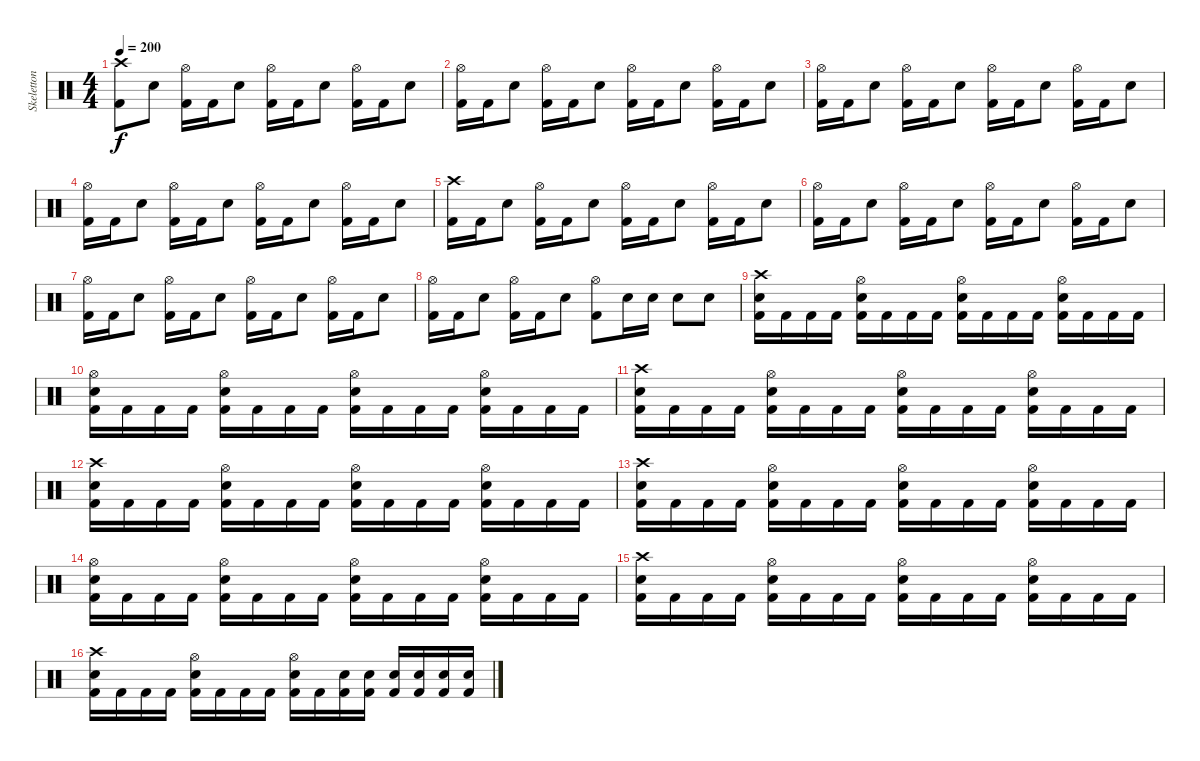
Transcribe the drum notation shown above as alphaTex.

\track ("Skeletton - Drums" "Skeletton ") {instrument percussion}
\staff {score}
\articulation defaults
\ts (4 4)
\tempo 200
\clef neutral
\ks c
("Crash high (hit)" "Kick (hit) 2").8{dy f} "Electric Snare (hit)".8 ("Hi-Hat (open)" "Kick (hit) 2").16 "Kick (hit) 2".16 "Electric Snare (hit)".8 ("Hi-Hat (open)" "Kick (hit) 2").16 "Kick (hit) 2".16 "Electric Snare (hit)".8 ("Hi-Hat (open)" "Kick (hit) 2").16 "Kick (hit) 2".16 "Electric Snare (hit)".8 |
("Hi-Hat (open)" "Kick (hit) 2").16 "Kick (hit) 2".16 "Electric Snare (hit)".8 ("Hi-Hat (open)" "Kick (hit) 2").16 "Kick (hit) 2".16 "Electric Snare (hit)".8 ("Hi-Hat (open)" "Kick (hit) 2").16 "Kick (hit) 2".16 "Electric Snare (hit)".8 ("Hi-Hat (open)" "Kick (hit) 2").16 "Kick (hit) 2".16 "Electric Snare (hit)".8 |
("Hi-Hat (open)" "Kick (hit) 2").16 "Kick (hit) 2".16 "Electric Snare (hit)".8 ("Hi-Hat (open)" "Kick (hit) 2").16 "Kick (hit) 2".16 "Electric Snare (hit)".8 ("Hi-Hat (open)" "Kick (hit) 2").16 "Kick (hit) 2".16 "Electric Snare (hit)".8 ("Hi-Hat (open)" "Kick (hit) 2").16 "Kick (hit) 2".16 "Electric Snare (hit)".8 |
("Hi-Hat (open)" "Kick (hit) 2").16 "Kick (hit) 2".16 "Electric Snare (hit)".8 ("Hi-Hat (open)" "Kick (hit) 2").16 "Kick (hit) 2".16 "Electric Snare (hit)".8 ("Hi-Hat (open)" "Kick (hit) 2").16 "Kick (hit) 2".16 "Electric Snare (hit)".8 ("Hi-Hat (open)" "Kick (hit) 2").16 "Kick (hit) 2".16 "Electric Snare (hit)".8 |
("Crash high (hit)" "Kick (hit) 2").16 "Kick (hit) 2".16 "Electric Snare (hit)".8 ("Hi-Hat (open)" "Kick (hit) 2").16 "Kick (hit) 2".16 "Electric Snare (hit)".8 ("Hi-Hat (open)" "Kick (hit) 2").16 "Kick (hit) 2".16 "Electric Snare (hit)".8 ("Hi-Hat (open)" "Kick (hit) 2").16 "Kick (hit) 2".16 "Electric Snare (hit)".8 |
("Hi-Hat (open)" "Kick (hit) 2").16 "Kick (hit) 2".16 "Electric Snare (hit)".8 ("Hi-Hat (open)" "Kick (hit) 2").16 "Kick (hit) 2".16 "Electric Snare (hit)".8 ("Hi-Hat (open)" "Kick (hit) 2").16 "Kick (hit) 2".16 "Electric Snare (hit)".8 ("Hi-Hat (open)" "Kick (hit) 2").16 "Kick (hit) 2".16 "Electric Snare (hit)".8 |
("Hi-Hat (open)" "Kick (hit) 2").16 "Kick (hit) 2".16 "Electric Snare (hit)".8 ("Hi-Hat (open)" "Kick (hit) 2").16 "Kick (hit) 2".16 "Electric Snare (hit)".8 ("Hi-Hat (open)" "Kick (hit) 2").16 "Kick (hit) 2".16 "Electric Snare (hit)".8 ("Hi-Hat (open)" "Kick (hit) 2").16 "Kick (hit) 2".16 "Electric Snare (hit)".8 |
("Hi-Hat (open)" "Kick (hit) 2").16 "Kick (hit) 2".16 "Electric Snare (hit)".8 ("Hi-Hat (open)" "Kick (hit) 2").16 "Kick (hit) 2".16 "Electric Snare (hit)".8 ("Hi-Hat (open)" "Kick (hit) 2").8 "Electric Snare (hit)".16 "Electric Snare (hit)".16 "Electric Snare (hit)".8 "Electric Snare (hit)".8 |
("Crash high (hit)" "Electric Snare (hit)" "Kick (hit) 2").16 "Kick (hit) 2".16 "Kick (hit) 2".16 "Kick (hit) 2".16 ("Hi-Hat (open)" "Electric Snare (hit)" "Kick (hit) 2").16 "Kick (hit) 2".16 "Kick (hit) 2".16 "Kick (hit) 2".16 ("Hi-Hat (open)" "Electric Snare (hit)" "Kick (hit) 2").16 "Kick (hit) 2".16 "Kick (hit) 2".16 "Kick (hit) 2".16 ("Hi-Hat (open)" "Electric Snare (hit)" "Kick (hit) 2").16 "Kick (hit) 2".16 "Kick (hit) 2".16 "Kick (hit) 2".16 |
("Hi-Hat (open)" "Electric Snare (hit)" "Kick (hit) 2").16 "Kick (hit) 2".16 "Kick (hit) 2".16 "Kick (hit) 2".16 ("Hi-Hat (open)" "Electric Snare (hit)" "Kick (hit) 2").16 "Kick (hit) 2".16 "Kick (hit) 2".16 "Kick (hit) 2".16 ("Hi-Hat (open)" "Electric Snare (hit)" "Kick (hit) 2").16 "Kick (hit) 2".16 "Kick (hit) 2".16 "Kick (hit) 2".16 ("Hi-Hat (open)" "Electric Snare (hit)" "Kick (hit) 2").16 "Kick (hit) 2".16 "Kick (hit) 2".16 "Kick (hit) 2".16 |
("Crash high (hit)" "Electric Snare (hit)" "Kick (hit) 2").16 "Kick (hit) 2".16 "Kick (hit) 2".16 "Kick (hit) 2".16 ("Hi-Hat (open)" "Electric Snare (hit)" "Kick (hit) 2").16 "Kick (hit) 2".16 "Kick (hit) 2".16 "Kick (hit) 2".16 ("Hi-Hat (open)" "Electric Snare (hit)" "Kick (hit) 2").16 "Kick (hit) 2".16 "Kick (hit) 2".16 "Kick (hit) 2".16 ("Hi-Hat (open)" "Electric Snare (hit)" "Kick (hit) 2").16 "Kick (hit) 2".16 "Kick (hit) 2".16 "Kick (hit) 2".16 |
("Crash high (hit)" "Electric Snare (hit)" "Kick (hit) 2").16 "Kick (hit) 2".16 "Kick (hit) 2".16 "Kick (hit) 2".16 ("Hi-Hat (open)" "Electric Snare (hit)" "Kick (hit) 2").16 "Kick (hit) 2".16 "Kick (hit) 2".16 "Kick (hit) 2".16 ("Hi-Hat (open)" "Electric Snare (hit)" "Kick (hit) 2").16 "Kick (hit) 2".16 "Kick (hit) 2".16 "Kick (hit) 2".16 ("Hi-Hat (open)" "Electric Snare (hit)" "Kick (hit) 2").16 "Kick (hit) 2".16 "Kick (hit) 2".16 "Kick (hit) 2".16 |
("Crash high (hit)" "Electric Snare (hit)" "Kick (hit) 2").16 "Kick (hit) 2".16 "Kick (hit) 2".16 "Kick (hit) 2".16 ("Hi-Hat (open)" "Electric Snare (hit)" "Kick (hit) 2").16 "Kick (hit) 2".16 "Kick (hit) 2".16 "Kick (hit) 2".16 ("Hi-Hat (open)" "Electric Snare (hit)" "Kick (hit) 2").16 "Kick (hit) 2".16 "Kick (hit) 2".16 "Kick (hit) 2".16 ("Hi-Hat (open)" "Electric Snare (hit)" "Kick (hit) 2").16 "Kick (hit) 2".16 "Kick (hit) 2".16 "Kick (hit) 2".16 |
("Hi-Hat (open)" "Electric Snare (hit)" "Kick (hit) 2").16 "Kick (hit) 2".16 "Kick (hit) 2".16 "Kick (hit) 2".16 ("Hi-Hat (open)" "Electric Snare (hit)" "Kick (hit) 2").16 "Kick (hit) 2".16 "Kick (hit) 2".16 "Kick (hit) 2".16 ("Hi-Hat (open)" "Electric Snare (hit)" "Kick (hit) 2").16 "Kick (hit) 2".16 "Kick (hit) 2".16 "Kick (hit) 2".16 ("Hi-Hat (open)" "Electric Snare (hit)" "Kick (hit) 2").16 "Kick (hit) 2".16 "Kick (hit) 2".16 "Kick (hit) 2".16 |
("Crash high (hit)" "Electric Snare (hit)" "Kick (hit) 2").16 "Kick (hit) 2".16 "Kick (hit) 2".16 "Kick (hit) 2".16 ("Hi-Hat (open)" "Electric Snare (hit)" "Kick (hit) 2").16 "Kick (hit) 2".16 "Kick (hit) 2".16 "Kick (hit) 2".16 ("Hi-Hat (open)" "Electric Snare (hit)" "Kick (hit) 2").16 "Kick (hit) 2".16 "Kick (hit) 2".16 "Kick (hit) 2".16 ("Hi-Hat (open)" "Electric Snare (hit)" "Kick (hit) 2").16 "Kick (hit) 2".16 "Kick (hit) 2".16 "Kick (hit) 2".16 |
("Crash high (hit)" "Electric Snare (hit)" "Kick (hit) 2").16 "Kick (hit) 2".16 "Kick (hit) 2".16 "Kick (hit) 2".16 ("Hi-Hat (open)" "Electric Snare (hit)" "Kick (hit) 2").16 "Kick (hit) 2".16 "Kick (hit) 2".16 "Kick (hit) 2".16 ("Hi-Hat (open)" "Electric Snare (hit)" "Kick (hit) 2").16 "Kick (hit) 2".16 ("Electric Snare (hit)" "Kick (hit) 2").16 ("Electric Snare (hit)" "Kick (hit) 2").16 ("Electric Snare (hit)" "Kick (hit) 2").16 ("Electric Snare (hit)" "Kick (hit) 2").16 ("Electric Snare (hit)" "Kick (hit) 2").16 ("Electric Snare (hit)" "Kick (hit) 2").16
